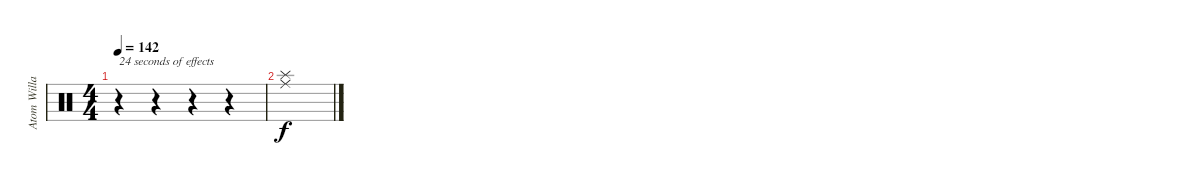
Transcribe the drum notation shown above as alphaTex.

\track ("Atom Willard" "Atom Willa") {instrument percussion}
\staff {score}
\articulation defaults
\ts (4 4)
\tempo 142
\clef neutral
\ks c
r.4{txt "24 seconds of effects" dy f} r.4 r.4 r.4 |
("Splash (hit)" "Ride (middle)").1
